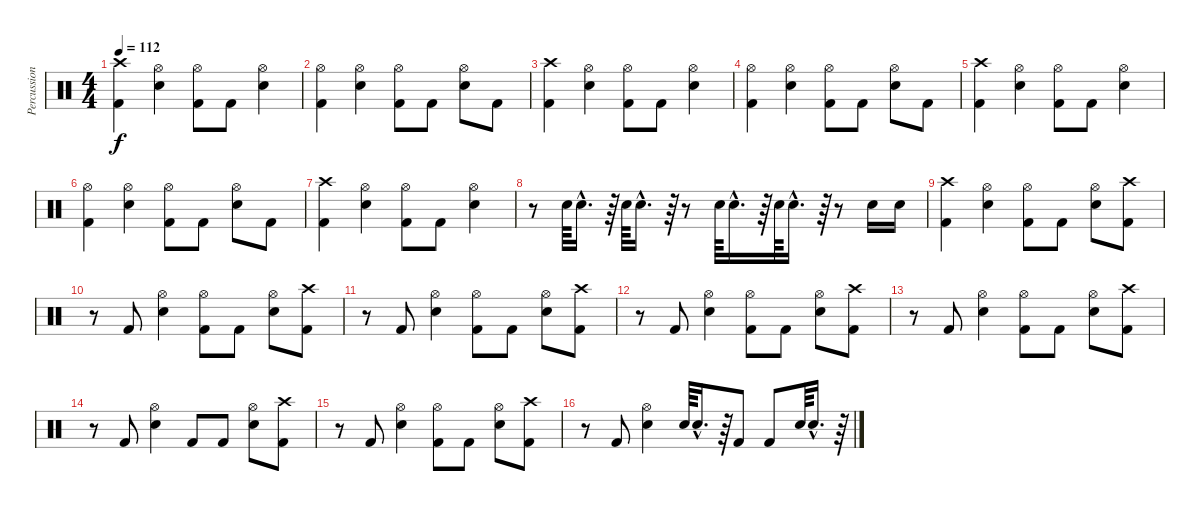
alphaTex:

\track ("Percussion" "Percussion") {instrument percussion}
\staff {score}
\articulation defaults
\ts (4 4)
\tempo 112
\clef neutral
\ks c
("Crash high (hit)" "Kick (hit) 2").4{dy f} ("Hi-Hat (open)" "Snare (hit) 2").4 ("Hi-Hat (open)" "Kick (hit) 2").8 "Kick (hit) 2".8 ("Hi-Hat (open)" "Snare (hit) 2").4 |
("Hi-Hat (open)" "Kick (hit) 2").4 ("Hi-Hat (open)" "Snare (hit) 2").4 ("Hi-Hat (open)" "Kick (hit) 2").8 "Kick (hit) 2".8 ("Hi-Hat (open)" "Snare (hit) 2").8 "Kick (hit) 2".8 |
("Crash high (hit)" "Kick (hit) 2").4 ("Hi-Hat (open)" "Snare (hit) 2").4 ("Hi-Hat (open)" "Kick (hit) 2").8 "Kick (hit) 2".8 ("Hi-Hat (open)" "Snare (hit) 2").4 |
("Hi-Hat (open)" "Kick (hit) 2").4 ("Hi-Hat (open)" "Snare (hit) 2").4 ("Hi-Hat (open)" "Kick (hit) 2").8 "Kick (hit) 2".8 ("Hi-Hat (open)" "Snare (hit) 2").8 "Kick (hit) 2".8 |
("Crash high (hit)" "Kick (hit) 2").4 ("Hi-Hat (open)" "Snare (hit) 2").4 ("Hi-Hat (open)" "Kick (hit) 2").8 "Kick (hit) 2".8 ("Hi-Hat (open)" "Snare (hit) 2").4 |
("Hi-Hat (open)" "Kick (hit) 2").4 ("Hi-Hat (open)" "Snare (hit) 2").4 ("Hi-Hat (open)" "Kick (hit) 2").8 "Kick (hit) 2".8 ("Hi-Hat (open)" "Snare (hit) 2").8 "Kick (hit) 2".8 |
("Crash high (hit)" "Kick (hit) 2").4 ("Hi-Hat (open)" "Snare (hit) 2").4 ("Hi-Hat (open)" "Kick (hit) 2").8 "Kick (hit) 2".8 ("Hi-Hat (open)" "Snare (hit) 2").4 |
r.8 "Snare (hit) 2".64 "Snare (hit) 2"{hac}.16{d} r.64 "Snare (hit) 2".64 "Snare (hit) 2"{hac}.16{d} r.64 r.8 "Snare (hit) 2".64 "Snare (hit) 2"{hac}.16{d} r.64 "Snare (hit) 2".64 "Snare (hit) 2"{hac}.16{d} r.64 r.8 "Snare (hit) 2".16 "Snare (hit) 2".16 |
("Crash high (hit)" "Kick (hit) 2").4 ("Hi-Hat (open)" "Snare (hit) 2").4 ("Hi-Hat (open)" "Kick (hit) 2").8 "Kick (hit) 2".8 ("Hi-Hat (open)" "Snare (hit) 2").8 ("Crash high (hit)" "Kick (hit) 2").8 |
r.8 "Kick (hit) 2".8 ("Hi-Hat (open)" "Snare (hit) 2").4 ("Hi-Hat (open)" "Kick (hit) 2").8 "Kick (hit) 2".8 ("Hi-Hat (open)" "Snare (hit) 2").8 ("Crash high (hit)" "Kick (hit) 2").8 |
r.8 "Kick (hit) 2".8 ("Hi-Hat (open)" "Snare (hit) 2").4 ("Hi-Hat (open)" "Kick (hit) 2").8 "Kick (hit) 2".8 ("Hi-Hat (open)" "Snare (hit) 2").8 ("Crash high (hit)" "Kick (hit) 2").8 |
r.8 "Kick (hit) 2".8 ("Hi-Hat (open)" "Snare (hit) 2").4 ("Hi-Hat (open)" "Kick (hit) 2").8 "Kick (hit) 2".8 ("Hi-Hat (open)" "Snare (hit) 2").8 ("Crash high (hit)" "Kick (hit) 2").8 |
r.8 "Kick (hit) 2".8 ("Hi-Hat (open)" "Snare (hit) 2").4 ("Hi-Hat (open)" "Kick (hit) 2").8 "Kick (hit) 2".8 ("Hi-Hat (open)" "Snare (hit) 2").8 ("Crash high (hit)" "Kick (hit) 2").8 |
r.8 "Kick (hit) 2".8 ("Hi-Hat (open)" "Snare (hit) 2").4 "Kick (hit) 2".8 "Kick (hit) 2".8 ("Hi-Hat (open)" "Snare (hit) 2").8 ("Crash high (hit)" "Kick (hit) 2").8 |
r.8 "Kick (hit) 2".8 ("Hi-Hat (open)" "Snare (hit) 2").4 ("Hi-Hat (open)" "Kick (hit) 2").8 "Kick (hit) 2".8 ("Hi-Hat (open)" "Snare (hit) 2").8 ("Crash high (hit)" "Kick (hit) 2").8 |
r.8 "Kick (hit) 2".8 ("Hi-Hat (open)" "Snare (hit) 2").4 "Snare (hit) 2".64 "Snare (hit) 2"{hac}.16{d} r.64 "Kick (hit) 2".8 "Kick (hit) 2".8 "Snare (hit) 2".64 "Snare (hit) 2"{hac}.16{d} r.64
